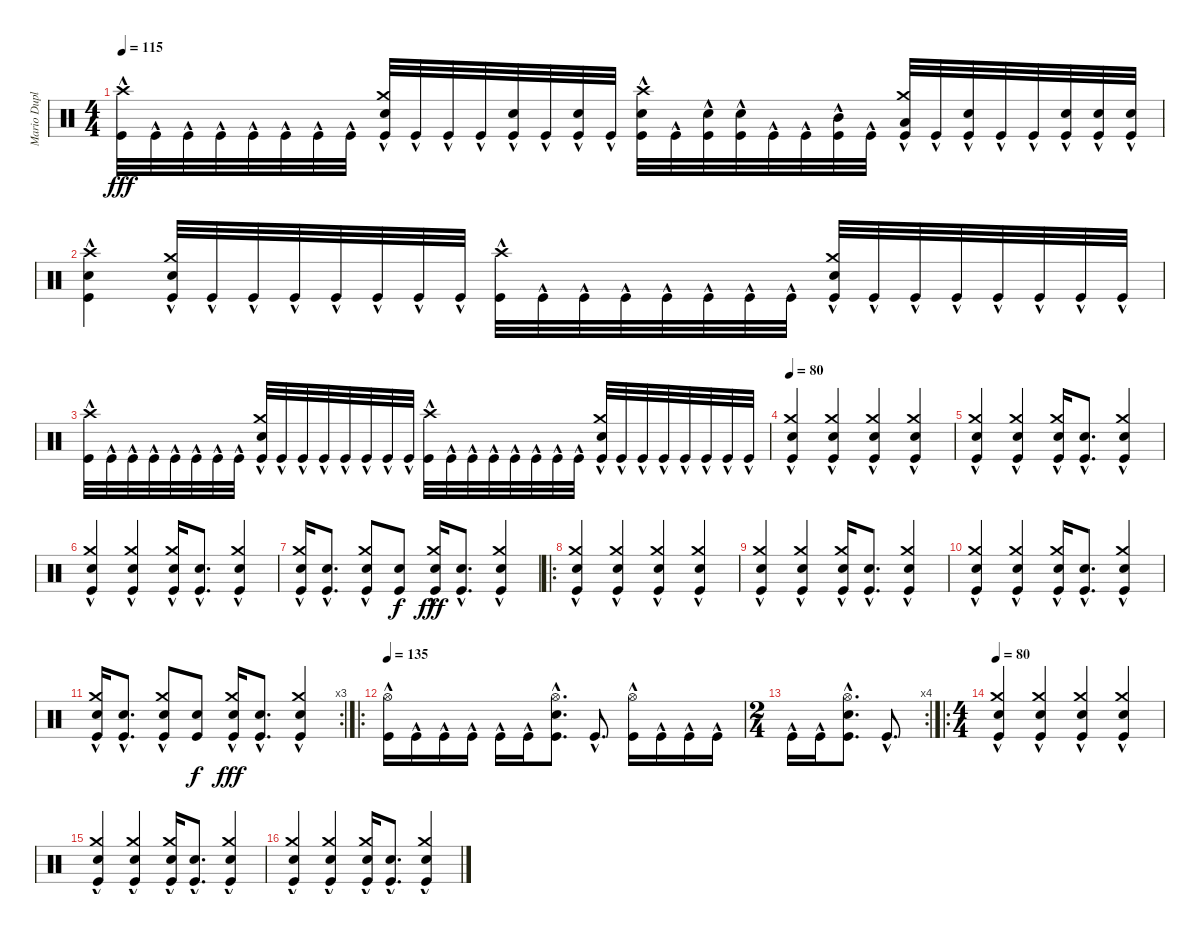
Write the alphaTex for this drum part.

\track ("Mario Duplantier" "Mario Dupl") {instrument percussion}
\staff {score}
\articulation defaults
\ts (4 4)
\tempo 115
\clef neutral
\ks c
("Crash high (hit)" "Kick (hit)"{hac}).32{dy fff} "Kick (hit)"{hac}.32 "Kick (hit)"{hac}.32 "Kick (hit)"{hac}.32 "Kick (hit)"{hac}.32 "Kick (hit)"{hac}.32 "Kick (hit)"{hac}.32 "Kick (hit)"{hac}.32 ("Crash medium (hit)" "Electric Snare (hit)" "Kick (hit)"{hac}).32 "Kick (hit)"{hac}.32 "Kick (hit)"{hac}.32 "Kick (hit)"{hac}.32 ("Electric Snare (hit)" "Kick (hit)"{hac}).32 "Kick (hit)"{hac}.32 ("Electric Snare (hit)" "Kick (hit)"{hac}).32 "Kick (hit)"{hac}.32 ("Crash high (hit)" "Electric Snare (hit)" "Kick (hit)"{hac}).32 "Kick (hit)"{hac}.32 ("Electric Snare (hit)" "Kick (hit)"{hac}).32 ("Electric Snare (hit)" "Kick (hit)"{hac}).32 "Kick (hit)"{hac}.32 "Kick (hit)"{hac}.32 ("Mid Tom (hit)" "Kick (hit)"{hac}).32 "Kick (hit)"{hac}.32 ("Crash medium (hit)" "Low Tom (hit)" "Kick (hit)"{hac}).32 "Kick (hit)"{hac}.32 ("Electric Snare (hit)" "Kick (hit)"{hac}).32 "Kick (hit)"{hac}.32 "Kick (hit)"{hac}.32 ("Electric Snare (hit)" "Kick (hit)"{hac}).32 ("Electric Snare (hit)" "Kick (hit)"{hac}).32 ("Electric Snare (hit)" "Kick (hit)"{hac}).32 |
("Crash high (hit)" "Electric Snare (hit)" "Kick (hit)"{hac}).4 ("Crash medium (hit)" "Electric Snare (hit)" "Kick (hit)"{hac}).32 "Kick (hit)"{hac}.32 "Kick (hit)"{hac}.32 "Kick (hit)"{hac}.32 "Kick (hit)"{hac}.32 "Kick (hit)"{hac}.32 "Kick (hit)"{hac}.32 "Kick (hit)"{hac}.32 ("Crash high (hit)" "Kick (hit)"{hac}).32 "Kick (hit)"{hac}.32 "Kick (hit)"{hac}.32 "Kick (hit)"{hac}.32 "Kick (hit)"{hac}.32 "Kick (hit)"{hac}.32 "Kick (hit)"{hac}.32 "Kick (hit)"{hac}.32 ("Crash medium (hit)" "Electric Snare (hit)" "Kick (hit)"{hac}).32 "Kick (hit)"{hac}.32 "Kick (hit)"{hac}.32 "Kick (hit)"{hac}.32 "Kick (hit)"{hac}.32 "Kick (hit)"{hac}.32 "Kick (hit)"{hac}.32 "Kick (hit)"{hac}.32 |
("Crash high (hit)" "Kick (hit)"{hac}).32 "Kick (hit)"{hac}.32 "Kick (hit)"{hac}.32 "Kick (hit)"{hac}.32 "Kick (hit)"{hac}.32 "Kick (hit)"{hac}.32 "Kick (hit)"{hac}.32 "Kick (hit)"{hac}.32 ("Crash medium (hit)" "Electric Snare (hit)" "Kick (hit)"{hac}).32 "Kick (hit)"{hac}.32 "Kick (hit)"{hac}.32 "Kick (hit)"{hac}.32 "Kick (hit)"{hac}.32 "Kick (hit)"{hac}.32 "Kick (hit)"{hac}.32 "Kick (hit)"{hac}.32 ("Crash high (hit)" "Kick (hit)"{hac}).32 "Kick (hit)"{hac}.32 "Kick (hit)"{hac}.32 "Kick (hit)"{hac}.32 "Kick (hit)"{hac}.32 "Kick (hit)"{hac}.32 "Kick (hit)"{hac}.32 "Kick (hit)"{hac}.32 ("Crash medium (hit)" "Electric Snare (hit)" "Kick (hit)"{hac}).32 "Kick (hit)"{hac}.32 "Kick (hit)"{hac}.32 "Kick (hit)"{hac}.32 "Kick (hit)"{hac}.32 "Kick (hit)"{hac}.32 "Kick (hit)"{hac}.32 "Kick (hit)"{hac}.32 |
\tempo 80
("Crash medium (hit)" "Electric Snare (hit)" "Kick (hit)"{hac}).4 ("Crash medium (hit)" "Electric Snare (hit)" "Kick (hit)"{hac}).4 ("Crash medium (hit)" "Electric Snare (hit)" "Kick (hit)"{hac}).4 ("Crash medium (hit)" "Electric Snare (hit)" "Kick (hit)"{hac}).4 |
("Crash medium (hit)" "Electric Snare (hit)" "Kick (hit)"{hac}).4 ("Crash medium (hit)" "Electric Snare (hit)" "Kick (hit)"{hac}).4 ("Crash medium (hit)" "Electric Snare (hit)" "Kick (hit)"{hac}).16 ("Electric Snare (hit)" "Kick (hit)"{hac}).8{d} ("Crash medium (hit)" "Electric Snare (hit)" "Kick (hit)"{hac}).4 |
("Crash medium (hit)" "Electric Snare (hit)" "Kick (hit)"{hac}).4 ("Crash medium (hit)" "Electric Snare (hit)" "Kick (hit)"{hac}).4 ("Crash medium (hit)" "Electric Snare (hit)" "Kick (hit)"{hac}).16 ("Electric Snare (hit)" "Kick (hit)"{hac}).8{d} ("Crash medium (hit)" "Electric Snare (hit)" "Kick (hit)"{hac}).4 |
("Crash medium (hit)" "Electric Snare (hit)" "Kick (hit)"{hac}).16 ("Electric Snare (hit)" "Kick (hit)"{hac}).8{d} ("Crash medium (hit)" "Electric Snare (hit)" "Kick (hit)"{hac}).8 ("Electric Snare (hit)" "Kick (hit)").8{dy f} ("Crash medium (hit)" "Electric Snare (hit)" "Kick (hit)"{hac}).16{dy fff} ("Electric Snare (hit)" "Kick (hit)"{hac}).8{d} ("Crash medium (hit)" "Electric Snare (hit)" "Kick (hit)"{hac}).4 |
\ro
("Crash medium (hit)" "Electric Snare (hit)" "Kick (hit)"{hac}).4 ("Crash medium (hit)" "Electric Snare (hit)" "Kick (hit)"{hac}).4 ("Crash medium (hit)" "Electric Snare (hit)" "Kick (hit)"{hac}).4 ("Crash medium (hit)" "Electric Snare (hit)" "Kick (hit)"{hac}).4 |
("Crash medium (hit)" "Electric Snare (hit)" "Kick (hit)"{hac}).4 ("Crash medium (hit)" "Electric Snare (hit)" "Kick (hit)"{hac}).4 ("Crash medium (hit)" "Electric Snare (hit)" "Kick (hit)"{hac}).16 ("Electric Snare (hit)" "Kick (hit)"{hac}).8{d} ("Crash medium (hit)" "Electric Snare (hit)" "Kick (hit)"{hac}).4 |
("Crash medium (hit)" "Electric Snare (hit)" "Kick (hit)"{hac}).4 ("Crash medium (hit)" "Electric Snare (hit)" "Kick (hit)"{hac}).4 ("Crash medium (hit)" "Electric Snare (hit)" "Kick (hit)"{hac}).16 ("Electric Snare (hit)" "Kick (hit)"{hac}).8{d} ("Crash medium (hit)" "Electric Snare (hit)" "Kick (hit)"{hac}).4 |
\rc 3
("Crash medium (hit)" "Electric Snare (hit)" "Kick (hit)"{hac}).16 ("Electric Snare (hit)" "Kick (hit)"{hac}).8{d} ("Crash medium (hit)" "Electric Snare (hit)" "Kick (hit)"{hac}).8 ("Electric Snare (hit)" "Kick (hit)").8{dy f} ("Crash medium (hit)" "Electric Snare (hit)" "Kick (hit)"{hac}).16{dy fff} ("Electric Snare (hit)" "Kick (hit)"{hac}).8{d} ("Crash medium (hit)" "Electric Snare (hit)" "Kick (hit)"{hac}).4 |
\ro
\tempo 135
("Hi-Hat (open)" "Kick (hit)"{hac}).16 "Kick (hit)"{hac}.16 "Kick (hit)"{hac}.16 "Kick (hit)"{hac}.16 "Kick (hit)"{hac}.16 "Kick (hit)"{hac}.16 ("Hi-Hat (open)" "Electric Snare (hit)" "Kick (hit)"{hac}).8{d} "Kick (hit)"{hac}.8{d} ("Hi-Hat (open)" "Kick (hit)"{hac}).16 "Kick (hit)"{hac}.16 "Kick (hit)"{hac}.16 "Kick (hit)"{hac}.16 |
\rc 4
\ts (2 4)
"Kick (hit)"{hac}.16 "Kick (hit)"{hac}.16 ("Hi-Hat (open)" "Electric Snare (hit)" "Kick (hit)"{hac}).8{d} "Kick (hit)"{hac}.8{d} |
\ro
\ts (4 4)
\tempo 80
("Crash medium (hit)" "Electric Snare (hit)" "Kick (hit)"{hac}).4 ("Crash medium (hit)" "Electric Snare (hit)" "Kick (hit)"{hac}).4 ("Crash medium (hit)" "Electric Snare (hit)" "Kick (hit)"{hac}).4 ("Crash medium (hit)" "Electric Snare (hit)" "Kick (hit)"{hac}).4 |
("Crash medium (hit)" "Electric Snare (hit)" "Kick (hit)"{hac}).4 ("Crash medium (hit)" "Electric Snare (hit)" "Kick (hit)"{hac}).4 ("Crash medium (hit)" "Electric Snare (hit)" "Kick (hit)"{hac}).16 ("Electric Snare (hit)" "Kick (hit)"{hac}).8{d} ("Crash medium (hit)" "Electric Snare (hit)" "Kick (hit)"{hac}).4 |
("Crash medium (hit)" "Electric Snare (hit)" "Kick (hit)"{hac}).4 ("Crash medium (hit)" "Electric Snare (hit)" "Kick (hit)"{hac}).4 ("Crash medium (hit)" "Electric Snare (hit)" "Kick (hit)"{hac}).16 ("Electric Snare (hit)" "Kick (hit)"{hac}).8{d} ("Crash medium (hit)" "Electric Snare (hit)" "Kick (hit)"{hac}).4
